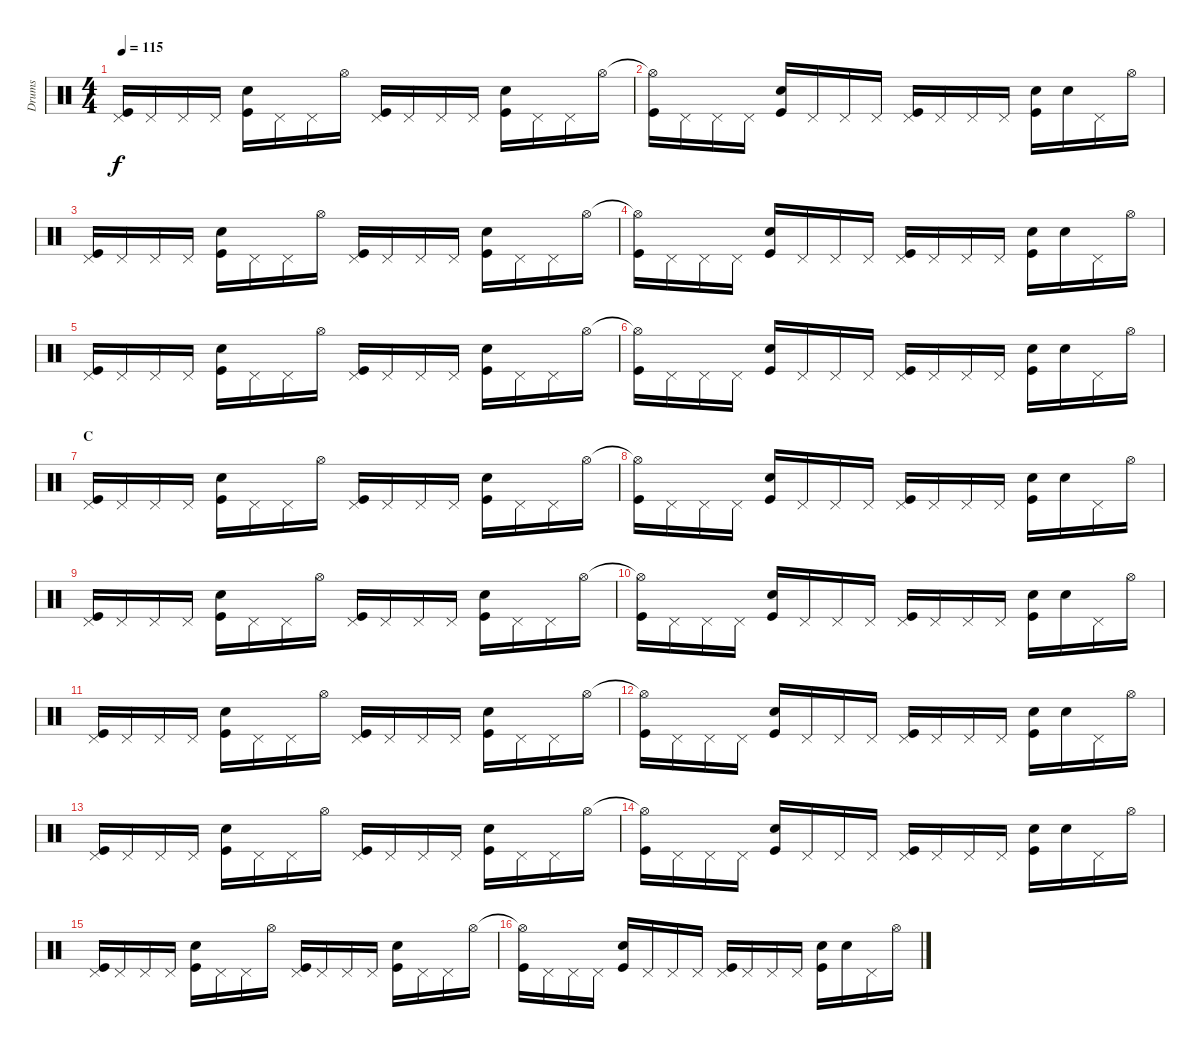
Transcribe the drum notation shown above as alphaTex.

\track ("Drums" "Drums") {instrument percussion}
\staff {score}
\articulation defaults
\ts (4 4)
\tempo 115
\clef neutral
\ks c
("Pedal Hi-Hat (hit)" "Kick (hit)").16{dy f} "Pedal Hi-Hat (hit)".16 "Pedal Hi-Hat (hit)".16 "Pedal Hi-Hat (hit)".16 ("Snare (hit) 2" "Kick (hit)").16 "Pedal Hi-Hat (hit)".16 "Pedal Hi-Hat (hit)".16 "Hi-Hat (open)".16 ("Pedal Hi-Hat (hit)" "Kick (hit)").16 "Pedal Hi-Hat (hit)".16 "Pedal Hi-Hat (hit)".16 "Pedal Hi-Hat (hit)".16 ("Snare (hit) 2" "Kick (hit)").16 "Pedal Hi-Hat (hit)".16 "Pedal Hi-Hat (hit)".16 "Hi-Hat (open)".16 |
("Hi-Hat (open)"{t} "Kick (hit)").16 "Pedal Hi-Hat (hit)".16 "Pedal Hi-Hat (hit)".16 "Pedal Hi-Hat (hit)".16 ("Snare (hit) 2" "Kick (hit)").16 "Pedal Hi-Hat (hit)".16 "Pedal Hi-Hat (hit)".16 "Pedal Hi-Hat (hit)".16 ("Pedal Hi-Hat (hit)" "Kick (hit)").16 "Pedal Hi-Hat (hit)".16 "Pedal Hi-Hat (hit)".16 "Pedal Hi-Hat (hit)".16 ("Snare (hit) 2" "Kick (hit)").16 "Snare (hit) 2".16 "Pedal Hi-Hat (hit)".16 "Hi-Hat (open)".16 |
("Pedal Hi-Hat (hit)" "Kick (hit)").16 "Pedal Hi-Hat (hit)".16 "Pedal Hi-Hat (hit)".16 "Pedal Hi-Hat (hit)".16 ("Snare (hit) 2" "Kick (hit)").16 "Pedal Hi-Hat (hit)".16 "Pedal Hi-Hat (hit)".16 "Hi-Hat (open)".16 ("Pedal Hi-Hat (hit)" "Kick (hit)").16 "Pedal Hi-Hat (hit)".16 "Pedal Hi-Hat (hit)".16 "Pedal Hi-Hat (hit)".16 ("Snare (hit) 2" "Kick (hit)").16 "Pedal Hi-Hat (hit)".16 "Pedal Hi-Hat (hit)".16 "Hi-Hat (open)".16 |
("Hi-Hat (open)"{t} "Kick (hit)").16 "Pedal Hi-Hat (hit)".16 "Pedal Hi-Hat (hit)".16 "Pedal Hi-Hat (hit)".16 ("Snare (hit) 2" "Kick (hit)").16 "Pedal Hi-Hat (hit)".16 "Pedal Hi-Hat (hit)".16 "Pedal Hi-Hat (hit)".16 ("Pedal Hi-Hat (hit)" "Kick (hit)").16 "Pedal Hi-Hat (hit)".16 "Pedal Hi-Hat (hit)".16 "Pedal Hi-Hat (hit)".16 ("Snare (hit) 2" "Kick (hit)").16 "Snare (hit) 2".16 "Pedal Hi-Hat (hit)".16 "Hi-Hat (open)".16 |
("Pedal Hi-Hat (hit)" "Kick (hit)").16 "Pedal Hi-Hat (hit)".16 "Pedal Hi-Hat (hit)".16 "Pedal Hi-Hat (hit)".16 ("Snare (hit) 2" "Kick (hit)").16 "Pedal Hi-Hat (hit)".16 "Pedal Hi-Hat (hit)".16 "Hi-Hat (open)".16 ("Pedal Hi-Hat (hit)" "Kick (hit)").16 "Pedal Hi-Hat (hit)".16 "Pedal Hi-Hat (hit)".16 "Pedal Hi-Hat (hit)".16 ("Snare (hit) 2" "Kick (hit)").16 "Pedal Hi-Hat (hit)".16 "Pedal Hi-Hat (hit)".16 "Hi-Hat (open)".16 |
("Hi-Hat (open)"{t} "Kick (hit)").16 "Pedal Hi-Hat (hit)".16 "Pedal Hi-Hat (hit)".16 "Pedal Hi-Hat (hit)".16 ("Snare (hit) 2" "Kick (hit)").16 "Pedal Hi-Hat (hit)".16 "Pedal Hi-Hat (hit)".16 "Pedal Hi-Hat (hit)".16 ("Pedal Hi-Hat (hit)" "Kick (hit)").16 "Pedal Hi-Hat (hit)".16 "Pedal Hi-Hat (hit)".16 "Pedal Hi-Hat (hit)".16 ("Snare (hit) 2" "Kick (hit)").16 "Snare (hit) 2".16 "Pedal Hi-Hat (hit)".16 "Hi-Hat (open)".16 |
\section ("" "C")
("Pedal Hi-Hat (hit)" "Kick (hit)").16 "Pedal Hi-Hat (hit)".16 "Pedal Hi-Hat (hit)".16 "Pedal Hi-Hat (hit)".16 ("Snare (hit) 2" "Kick (hit)").16 "Pedal Hi-Hat (hit)".16 "Pedal Hi-Hat (hit)".16 "Hi-Hat (open)".16 ("Pedal Hi-Hat (hit)" "Kick (hit)").16 "Pedal Hi-Hat (hit)".16 "Pedal Hi-Hat (hit)".16 "Pedal Hi-Hat (hit)".16 ("Snare (hit) 2" "Kick (hit)").16 "Pedal Hi-Hat (hit)".16 "Pedal Hi-Hat (hit)".16 "Hi-Hat (open)".16 |
("Hi-Hat (open)"{t} "Kick (hit)").16 "Pedal Hi-Hat (hit)".16 "Pedal Hi-Hat (hit)".16 "Pedal Hi-Hat (hit)".16 ("Snare (hit) 2" "Kick (hit)").16 "Pedal Hi-Hat (hit)".16 "Pedal Hi-Hat (hit)".16 "Pedal Hi-Hat (hit)".16 ("Pedal Hi-Hat (hit)" "Kick (hit)").16 "Pedal Hi-Hat (hit)".16 "Pedal Hi-Hat (hit)".16 "Pedal Hi-Hat (hit)".16 ("Snare (hit) 2" "Kick (hit)").16 "Snare (hit) 2".16 "Pedal Hi-Hat (hit)".16 "Hi-Hat (open)".16 |
("Pedal Hi-Hat (hit)" "Kick (hit)").16 "Pedal Hi-Hat (hit)".16 "Pedal Hi-Hat (hit)".16 "Pedal Hi-Hat (hit)".16 ("Snare (hit) 2" "Kick (hit)").16 "Pedal Hi-Hat (hit)".16 "Pedal Hi-Hat (hit)".16 "Hi-Hat (open)".16 ("Pedal Hi-Hat (hit)" "Kick (hit)").16 "Pedal Hi-Hat (hit)".16 "Pedal Hi-Hat (hit)".16 "Pedal Hi-Hat (hit)".16 ("Snare (hit) 2" "Kick (hit)").16 "Pedal Hi-Hat (hit)".16 "Pedal Hi-Hat (hit)".16 "Hi-Hat (open)".16 |
("Hi-Hat (open)"{t} "Kick (hit)").16 "Pedal Hi-Hat (hit)".16 "Pedal Hi-Hat (hit)".16 "Pedal Hi-Hat (hit)".16 ("Snare (hit) 2" "Kick (hit)").16 "Pedal Hi-Hat (hit)".16 "Pedal Hi-Hat (hit)".16 "Pedal Hi-Hat (hit)".16 ("Pedal Hi-Hat (hit)" "Kick (hit)").16 "Pedal Hi-Hat (hit)".16 "Pedal Hi-Hat (hit)".16 "Pedal Hi-Hat (hit)".16 ("Snare (hit) 2" "Kick (hit)").16 "Snare (hit) 2".16 "Pedal Hi-Hat (hit)".16 "Hi-Hat (open)".16 |
("Pedal Hi-Hat (hit)" "Kick (hit)").16 "Pedal Hi-Hat (hit)".16 "Pedal Hi-Hat (hit)".16 "Pedal Hi-Hat (hit)".16 ("Snare (hit) 2" "Kick (hit)").16 "Pedal Hi-Hat (hit)".16 "Pedal Hi-Hat (hit)".16 "Hi-Hat (open)".16 ("Pedal Hi-Hat (hit)" "Kick (hit)").16 "Pedal Hi-Hat (hit)".16 "Pedal Hi-Hat (hit)".16 "Pedal Hi-Hat (hit)".16 ("Snare (hit) 2" "Kick (hit)").16 "Pedal Hi-Hat (hit)".16 "Pedal Hi-Hat (hit)".16 "Hi-Hat (open)".16 |
("Hi-Hat (open)"{t} "Kick (hit)").16 "Pedal Hi-Hat (hit)".16 "Pedal Hi-Hat (hit)".16 "Pedal Hi-Hat (hit)".16 ("Snare (hit) 2" "Kick (hit)").16 "Pedal Hi-Hat (hit)".16 "Pedal Hi-Hat (hit)".16 "Pedal Hi-Hat (hit)".16 ("Pedal Hi-Hat (hit)" "Kick (hit)").16 "Pedal Hi-Hat (hit)".16 "Pedal Hi-Hat (hit)".16 "Pedal Hi-Hat (hit)".16 ("Snare (hit) 2" "Kick (hit)").16 "Snare (hit) 2".16 "Pedal Hi-Hat (hit)".16 "Hi-Hat (open)".16 |
("Pedal Hi-Hat (hit)" "Kick (hit)").16 "Pedal Hi-Hat (hit)".16 "Pedal Hi-Hat (hit)".16 "Pedal Hi-Hat (hit)".16 ("Snare (hit) 2" "Kick (hit)").16 "Pedal Hi-Hat (hit)".16 "Pedal Hi-Hat (hit)".16 "Hi-Hat (open)".16 ("Pedal Hi-Hat (hit)" "Kick (hit)").16 "Pedal Hi-Hat (hit)".16 "Pedal Hi-Hat (hit)".16 "Pedal Hi-Hat (hit)".16 ("Snare (hit) 2" "Kick (hit)").16 "Pedal Hi-Hat (hit)".16 "Pedal Hi-Hat (hit)".16 "Hi-Hat (open)".16 |
("Hi-Hat (open)"{t} "Kick (hit)").16 "Pedal Hi-Hat (hit)".16 "Pedal Hi-Hat (hit)".16 "Pedal Hi-Hat (hit)".16 ("Snare (hit) 2" "Kick (hit)").16 "Pedal Hi-Hat (hit)".16 "Pedal Hi-Hat (hit)".16 "Pedal Hi-Hat (hit)".16 ("Pedal Hi-Hat (hit)" "Kick (hit)").16 "Pedal Hi-Hat (hit)".16 "Pedal Hi-Hat (hit)".16 "Pedal Hi-Hat (hit)".16 ("Snare (hit) 2" "Kick (hit)").16 "Snare (hit) 2".16 "Pedal Hi-Hat (hit)".16 "Hi-Hat (open)".16 |
("Pedal Hi-Hat (hit)" "Kick (hit)").16 "Pedal Hi-Hat (hit)".16 "Pedal Hi-Hat (hit)".16 "Pedal Hi-Hat (hit)".16 ("Snare (hit) 2" "Kick (hit)").16 "Pedal Hi-Hat (hit)".16 "Pedal Hi-Hat (hit)".16 "Hi-Hat (open)".16 ("Pedal Hi-Hat (hit)" "Kick (hit)").16 "Pedal Hi-Hat (hit)".16 "Pedal Hi-Hat (hit)".16 "Pedal Hi-Hat (hit)".16 ("Snare (hit) 2" "Kick (hit)").16 "Pedal Hi-Hat (hit)".16 "Pedal Hi-Hat (hit)".16 "Hi-Hat (open)".16 |
("Hi-Hat (open)"{t} "Kick (hit)").16 "Pedal Hi-Hat (hit)".16 "Pedal Hi-Hat (hit)".16 "Pedal Hi-Hat (hit)".16 ("Snare (hit) 2" "Kick (hit)").16 "Pedal Hi-Hat (hit)".16 "Pedal Hi-Hat (hit)".16 "Pedal Hi-Hat (hit)".16 ("Pedal Hi-Hat (hit)" "Kick (hit)").16 "Pedal Hi-Hat (hit)".16 "Pedal Hi-Hat (hit)".16 "Pedal Hi-Hat (hit)".16 ("Snare (hit) 2" "Kick (hit)").16 "Snare (hit) 2".16 "Pedal Hi-Hat (hit)".16 "Hi-Hat (open)".16
